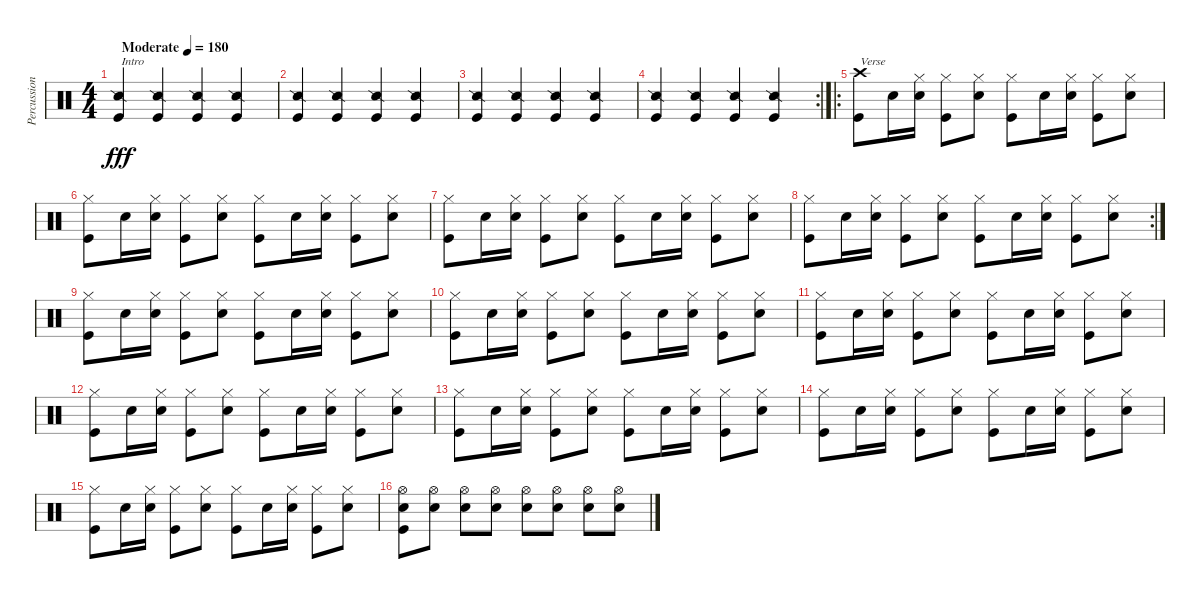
\track ("Percussions" "Percussion") {instrument percussion}
\staff {score}
\articulation defaults
\ts (4 4)
\tempo (180 "Moderate")
\clef neutral
\ks c
("Snare (side stick) 2" "Kick (hit)").4{txt "Intro" dy fff} ("Snare (side stick) 2" "Kick (hit)").4 ("Snare (side stick) 2" "Kick (hit)").4 ("Snare (side stick) 2" "Kick (hit)").4 |
("Snare (side stick) 2" "Kick (hit)").4 ("Snare (side stick) 2" "Kick (hit)").4 ("Snare (side stick) 2" "Kick (hit)").4 ("Snare (side stick) 2" "Kick (hit)").4 |
("Snare (side stick) 2" "Kick (hit)").4 ("Snare (side stick) 2" "Kick (hit)").4 ("Snare (side stick) 2" "Kick (hit)").4 ("Snare (side stick) 2" "Kick (hit)").4 |
\rc 2
("Snare (side stick) 2" "Kick (hit)").4 ("Snare (side stick) 2" "Kick (hit)").4 ("Snare (side stick) 2" "Kick (hit)").4 ("Snare (side stick) 2" "Kick (hit)").4 |
\ro
("Crash high (hit)" "Kick (hit)").8{txt "Verse"} "Electric Snare (hit)".16 ("Hi-Hat (closed)" "Electric Snare (hit)").16 ("Hi-Hat (closed)" "Kick (hit)").8 ("Hi-Hat (closed)" "Electric Snare (hit)").8 ("Hi-Hat (closed)" "Kick (hit)").8 "Electric Snare (hit)".16 ("Hi-Hat (closed)" "Electric Snare (hit)").16 ("Hi-Hat (closed)" "Kick (hit)").8 ("Hi-Hat (closed)" "Electric Snare (hit)").8 |
("Hi-Hat (closed)" "Kick (hit)").8 "Electric Snare (hit)".16 ("Hi-Hat (closed)" "Electric Snare (hit)").16 ("Hi-Hat (closed)" "Kick (hit)").8 ("Hi-Hat (closed)" "Electric Snare (hit)").8 ("Hi-Hat (closed)" "Kick (hit)").8 "Electric Snare (hit)".16 ("Hi-Hat (closed)" "Electric Snare (hit)").16 ("Hi-Hat (closed)" "Kick (hit)").8 ("Hi-Hat (closed)" "Electric Snare (hit)").8 |
("Hi-Hat (closed)" "Kick (hit)").8 "Electric Snare (hit)".16 ("Hi-Hat (closed)" "Electric Snare (hit)").16 ("Hi-Hat (closed)" "Kick (hit)").8 ("Hi-Hat (closed)" "Electric Snare (hit)").8 ("Hi-Hat (closed)" "Kick (hit)").8 "Electric Snare (hit)".16 ("Hi-Hat (closed)" "Electric Snare (hit)").16 ("Hi-Hat (closed)" "Kick (hit)").8 ("Hi-Hat (closed)" "Electric Snare (hit)").8 |
\rc 2
("Hi-Hat (closed)" "Kick (hit)").8 "Electric Snare (hit)".16 ("Hi-Hat (closed)" "Electric Snare (hit)").16 ("Hi-Hat (closed)" "Kick (hit)").8 ("Hi-Hat (closed)" "Electric Snare (hit)").8 ("Hi-Hat (closed)" "Kick (hit)").8 "Electric Snare (hit)".16 ("Hi-Hat (closed)" "Electric Snare (hit)").16 ("Hi-Hat (closed)" "Kick (hit)").8 ("Hi-Hat (closed)" "Electric Snare (hit)").8 |
("Hi-Hat (closed)" "Kick (hit)").8 "Electric Snare (hit)".16 ("Hi-Hat (closed)" "Electric Snare (hit)").16 ("Hi-Hat (closed)" "Kick (hit)").8 ("Hi-Hat (closed)" "Electric Snare (hit)").8 ("Hi-Hat (closed)" "Kick (hit)").8 "Electric Snare (hit)".16 ("Hi-Hat (closed)" "Electric Snare (hit)").16 ("Hi-Hat (closed)" "Kick (hit)").8 ("Hi-Hat (closed)" "Electric Snare (hit)").8 |
("Hi-Hat (closed)" "Kick (hit)").8 "Electric Snare (hit)".16 ("Hi-Hat (closed)" "Electric Snare (hit)").16 ("Hi-Hat (closed)" "Kick (hit)").8 ("Hi-Hat (closed)" "Electric Snare (hit)").8 ("Hi-Hat (closed)" "Kick (hit)").8 "Electric Snare (hit)".16 ("Hi-Hat (closed)" "Electric Snare (hit)").16 ("Hi-Hat (closed)" "Kick (hit)").8 ("Hi-Hat (closed)" "Electric Snare (hit)").8 |
("Hi-Hat (closed)" "Kick (hit)").8 "Electric Snare (hit)".16 ("Hi-Hat (closed)" "Electric Snare (hit)").16 ("Hi-Hat (closed)" "Kick (hit)").8 ("Hi-Hat (closed)" "Electric Snare (hit)").8 ("Hi-Hat (closed)" "Kick (hit)").8 "Electric Snare (hit)".16 ("Hi-Hat (closed)" "Electric Snare (hit)").16 ("Hi-Hat (closed)" "Kick (hit)").8 ("Hi-Hat (closed)" "Electric Snare (hit)").8 |
("Hi-Hat (closed)" "Kick (hit)").8 "Electric Snare (hit)".16 ("Hi-Hat (closed)" "Electric Snare (hit)").16 ("Hi-Hat (closed)" "Kick (hit)").8 ("Hi-Hat (closed)" "Electric Snare (hit)").8 ("Hi-Hat (closed)" "Kick (hit)").8 "Electric Snare (hit)".16 ("Hi-Hat (closed)" "Electric Snare (hit)").16 ("Hi-Hat (closed)" "Kick (hit)").8 ("Hi-Hat (closed)" "Electric Snare (hit)").8 |
("Hi-Hat (closed)" "Kick (hit)").8 "Electric Snare (hit)".16 ("Hi-Hat (closed)" "Electric Snare (hit)").16 ("Hi-Hat (closed)" "Kick (hit)").8 ("Hi-Hat (closed)" "Electric Snare (hit)").8 ("Hi-Hat (closed)" "Kick (hit)").8 "Electric Snare (hit)".16 ("Hi-Hat (closed)" "Electric Snare (hit)").16 ("Hi-Hat (closed)" "Kick (hit)").8 ("Hi-Hat (closed)" "Electric Snare (hit)").8 |
("Hi-Hat (closed)" "Kick (hit)").8 "Electric Snare (hit)".16 ("Hi-Hat (closed)" "Electric Snare (hit)").16 ("Hi-Hat (closed)" "Kick (hit)").8 ("Hi-Hat (closed)" "Electric Snare (hit)").8 ("Hi-Hat (closed)" "Kick (hit)").8 "Electric Snare (hit)".16 ("Hi-Hat (closed)" "Electric Snare (hit)").16 ("Hi-Hat (closed)" "Kick (hit)").8 ("Hi-Hat (closed)" "Electric Snare (hit)").8 |
("Hi-Hat (closed)" "Kick (hit)").8 "Electric Snare (hit)".16 ("Hi-Hat (closed)" "Electric Snare (hit)").16 ("Hi-Hat (closed)" "Kick (hit)").8 ("Hi-Hat (closed)" "Electric Snare (hit)").8 ("Hi-Hat (closed)" "Kick (hit)").8 "Electric Snare (hit)".16 ("Hi-Hat (closed)" "Electric Snare (hit)").16 ("Hi-Hat (closed)" "Kick (hit)").8 ("Hi-Hat (closed)" "Electric Snare (hit)").8 |
("Hi-Hat (open)" "Electric Snare (hit)" "Kick (hit)").8 ("Hi-Hat (open)" "Electric Snare (hit)").8 ("Hi-Hat (open)" "Electric Snare (hit)").8 ("Hi-Hat (open)" "Electric Snare (hit)").8 ("Hi-Hat (open)" "Electric Snare (hit)").8 ("Hi-Hat (open)" "Electric Snare (hit)").8 ("Hi-Hat (open)" "Electric Snare (hit)").8 ("Hi-Hat (open)" "Electric Snare (hit)").8
